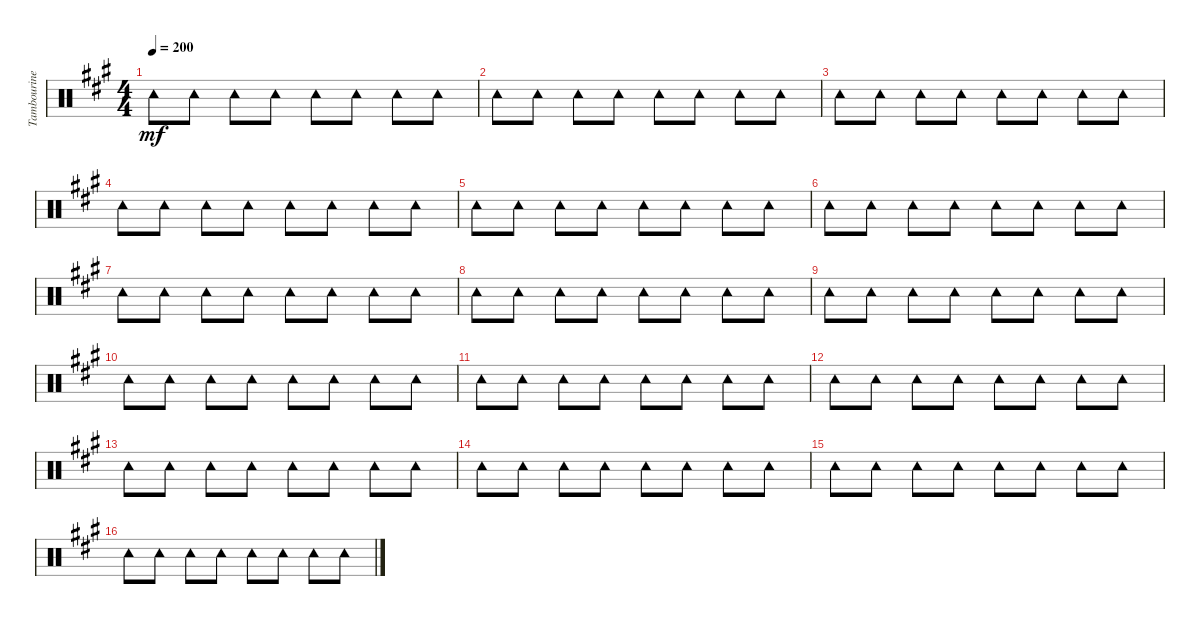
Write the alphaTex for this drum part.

\track ("Tambourine" "Tambourine") {instrument percussion}
\staff {score}
\articulation defaults
\ts (4 4)
\tempo 200
\clef neutral
\ks a "Tambourine (hit)".8{dy mf} "Tambourine (hit)".8 "Tambourine (hit)".8 "Tambourine (hit)".8 "Tambourine (hit)".8 "Tambourine (hit)".8 "Tambourine (hit)".8 "Tambourine (hit)".8
|
"Tambourine (hit)".8 "Tambourine (hit)".8 "Tambourine (hit)".8 "Tambourine (hit)".8 "Tambourine (hit)".8 "Tambourine (hit)".8 "Tambourine (hit)".8 "Tambourine (hit)".8 |
"Tambourine (hit)".8 "Tambourine (hit)".8 "Tambourine (hit)".8 "Tambourine (hit)".8 "Tambourine (hit)".8 "Tambourine (hit)".8 "Tambourine (hit)".8 "Tambourine (hit)".8 |
"Tambourine (hit)".8 "Tambourine (hit)".8 "Tambourine (hit)".8 "Tambourine (hit)".8 "Tambourine (hit)".8 "Tambourine (hit)".8 "Tambourine (hit)".8 "Tambourine (hit)".8 |
"Tambourine (hit)".8 "Tambourine (hit)".8 "Tambourine (hit)".8 "Tambourine (hit)".8 "Tambourine (hit)".8 "Tambourine (hit)".8 "Tambourine (hit)".8 "Tambourine (hit)".8 |
"Tambourine (hit)".8 "Tambourine (hit)".8 "Tambourine (hit)".8 "Tambourine (hit)".8 "Tambourine (hit)".8 "Tambourine (hit)".8 "Tambourine (hit)".8 "Tambourine (hit)".8 |
"Tambourine (hit)".8 "Tambourine (hit)".8 "Tambourine (hit)".8 "Tambourine (hit)".8 "Tambourine (hit)".8 "Tambourine (hit)".8 "Tambourine (hit)".8 "Tambourine (hit)".8 |
"Tambourine (hit)".8 "Tambourine (hit)".8 "Tambourine (hit)".8 "Tambourine (hit)".8 "Tambourine (hit)".8 "Tambourine (hit)".8 "Tambourine (hit)".8 "Tambourine (hit)".8 |
"Tambourine (hit)".8 "Tambourine (hit)".8 "Tambourine (hit)".8 "Tambourine (hit)".8 "Tambourine (hit)".8 "Tambourine (hit)".8 "Tambourine (hit)".8 "Tambourine (hit)".8 |
"Tambourine (hit)".8 "Tambourine (hit)".8 "Tambourine (hit)".8 "Tambourine (hit)".8 "Tambourine (hit)".8 "Tambourine (hit)".8 "Tambourine (hit)".8 "Tambourine (hit)".8 |
"Tambourine (hit)".8 "Tambourine (hit)".8 "Tambourine (hit)".8 "Tambourine (hit)".8 "Tambourine (hit)".8 "Tambourine (hit)".8 "Tambourine (hit)".8 "Tambourine (hit)".8 |
"Tambourine (hit)".8 "Tambourine (hit)".8 "Tambourine (hit)".8 "Tambourine (hit)".8 "Tambourine (hit)".8 "Tambourine (hit)".8 "Tambourine (hit)".8 "Tambourine (hit)".8 |
"Tambourine (hit)".8 "Tambourine (hit)".8 "Tambourine (hit)".8 "Tambourine (hit)".8 "Tambourine (hit)".8 "Tambourine (hit)".8 "Tambourine (hit)".8 "Tambourine (hit)".8 |
"Tambourine (hit)".8 "Tambourine (hit)".8 "Tambourine (hit)".8 "Tambourine (hit)".8 "Tambourine (hit)".8 "Tambourine (hit)".8 "Tambourine (hit)".8 "Tambourine (hit)".8 |
"Tambourine (hit)".8 "Tambourine (hit)".8 "Tambourine (hit)".8 "Tambourine (hit)".8 "Tambourine (hit)".8 "Tambourine (hit)".8 "Tambourine (hit)".8 "Tambourine (hit)".8 |
"Tambourine (hit)".8 "Tambourine (hit)".8 "Tambourine (hit)".8 "Tambourine (hit)".8 "Tambourine (hit)".8 "Tambourine (hit)".8 "Tambourine (hit)".8 "Tambourine (hit)".8
